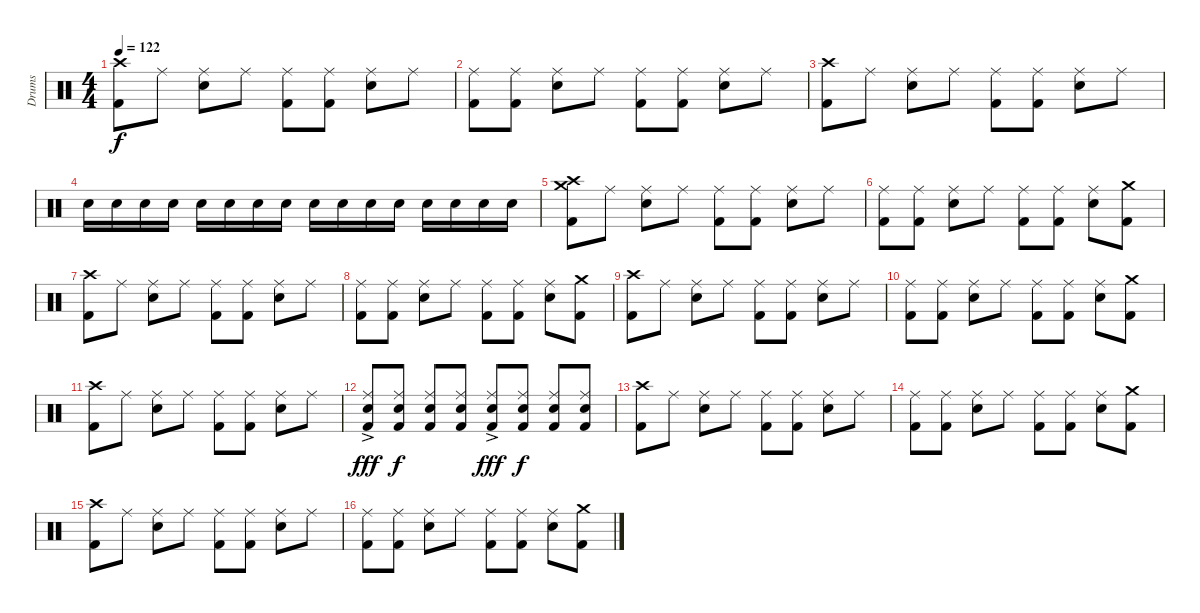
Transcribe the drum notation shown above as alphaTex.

\track ("Drums" "Drums") {instrument percussion}
\staff {score}
\articulation defaults
\ts (4 4)
\tempo 122
\clef neutral
\ks c
("Crash high (hit)" "Kick (hit) 2").8{dy f} "Ride (middle)".8 ("Ride (middle)" "Snare (hit) 2").8 "Ride (middle)".8 ("Ride (middle)" "Kick (hit) 2").8 ("Ride (middle)" "Kick (hit) 2").8 ("Ride (middle)" "Snare (hit) 2").8 "Ride (middle)".8 |
("Ride (middle)" "Kick (hit) 2").8 ("Ride (middle)" "Kick (hit) 2").8 ("Ride (middle)" "Snare (hit) 2").8 "Ride (middle)".8 ("Ride (middle)" "Kick (hit) 2").8 ("Ride (middle)" "Kick (hit) 2").8 ("Ride (middle)" "Snare (hit) 2").8 "Ride (middle)".8 |
("Crash high (hit)" "Kick (hit) 2").8 "Ride (middle)".8 ("Ride (middle)" "Snare (hit) 2").8 "Ride (middle)".8 ("Ride (middle)" "Kick (hit) 2").8 ("Ride (middle)" "Kick (hit) 2").8 ("Ride (middle)" "Snare (hit) 2").8 "Ride (middle)".8 |
"Snare (hit) 2".16 "Snare (hit) 2".16 "Snare (hit) 2".16 "Snare (hit) 2".16 "Snare (hit) 2".16 "Snare (hit) 2".16 "Snare (hit) 2".16 "Snare (hit) 2".16 "Snare (hit) 2".16 "Snare (hit) 2".16 "Snare (hit) 2".16 "Snare (hit) 2".16 "Snare (hit) 2".16 "Snare (hit) 2".16 "Snare (hit) 2".16 "Snare (hit) 2".16 |
("Crash high (hit)" "Crash medium (hit)" "Kick (hit) 2").8 "Ride (middle)".8 ("Ride (middle)" "Snare (hit) 2").8 "Ride (middle)".8 ("Ride (middle)" "Kick (hit) 2").8 ("Ride (middle)" "Kick (hit) 2").8 ("Ride (middle)" "Snare (hit) 2").8 "Ride (middle)".8 |
("Ride (middle)" "Kick (hit) 2").8 ("Ride (middle)" "Kick (hit) 2").8 ("Ride (middle)" "Snare (hit) 2").8 "Ride (middle)".8 ("Ride (middle)" "Kick (hit) 2").8 ("Ride (middle)" "Kick (hit) 2").8 ("Ride (middle)" "Snare (hit) 2").8 ("Crash medium (hit)" "Kick (hit) 2").8 |
("Crash high (hit)" "Kick (hit) 2").8 "Ride (middle)".8 ("Ride (middle)" "Snare (hit) 2").8 "Ride (middle)".8 ("Ride (middle)" "Kick (hit) 2").8 ("Ride (middle)" "Kick (hit) 2").8 ("Ride (middle)" "Snare (hit) 2").8 "Ride (middle)".8 |
("Ride (middle)" "Kick (hit) 2").8 ("Ride (middle)" "Kick (hit) 2").8 ("Ride (middle)" "Snare (hit) 2").8 "Ride (middle)".8 ("Ride (middle)" "Kick (hit) 2").8 ("Ride (middle)" "Kick (hit) 2").8 ("Ride (middle)" "Snare (hit) 2").8 ("Crash medium (hit)" "Kick (hit) 2").8 |
("Crash high (hit)" "Kick (hit) 2").8 "Ride (middle)".8 ("Ride (middle)" "Snare (hit) 2").8 "Ride (middle)".8 ("Ride (middle)" "Kick (hit) 2").8 ("Ride (middle)" "Kick (hit) 2").8 ("Ride (middle)" "Snare (hit) 2").8 "Ride (middle)".8 |
("Ride (middle)" "Kick (hit) 2").8 ("Ride (middle)" "Kick (hit) 2").8 ("Ride (middle)" "Snare (hit) 2").8 "Ride (middle)".8 ("Ride (middle)" "Kick (hit) 2").8 ("Ride (middle)" "Kick (hit) 2").8 ("Ride (middle)" "Snare (hit) 2").8 ("Crash medium (hit)" "Kick (hit) 2").8 |
("Crash high (hit)" "Kick (hit) 2").8 "Ride (middle)".8 ("Ride (middle)" "Snare (hit) 2").8 "Ride (middle)".8 ("Ride (middle)" "Kick (hit) 2").8 ("Ride (middle)" "Kick (hit) 2").8 ("Ride (middle)" "Snare (hit) 2").8 "Ride (middle)".8 |
("Ride (middle)"{ac} "Snare (hit) 2" "Kick (hit) 2").8{dy fff} ("Ride (middle)" "Snare (hit) 2" "Kick (hit) 2").8{dy f} ("Ride (middle)" "Snare (hit) 2" "Kick (hit) 2").8 ("Ride (middle)" "Snare (hit) 2" "Kick (hit) 2").8 ("Ride (middle)"{ac} "Snare (hit) 2" "Kick (hit) 2").8{dy fff} ("Ride (middle)" "Snare (hit) 2" "Kick (hit) 2").8{dy f} ("Ride (middle)" "Snare (hit) 2" "Kick (hit) 2").8 ("Ride (middle)" "Snare (hit) 2" "Kick (hit) 2").8 |
("Crash high (hit)" "Kick (hit) 2").8 "Ride (middle)".8 ("Ride (middle)" "Snare (hit) 2").8 "Ride (middle)".8 ("Ride (middle)" "Kick (hit) 2").8 ("Ride (middle)" "Kick (hit) 2").8 ("Ride (middle)" "Snare (hit) 2").8 "Ride (middle)".8 |
("Ride (middle)" "Kick (hit) 2").8 ("Ride (middle)" "Kick (hit) 2").8 ("Ride (middle)" "Snare (hit) 2").8 "Ride (middle)".8 ("Ride (middle)" "Kick (hit) 2").8 ("Ride (middle)" "Kick (hit) 2").8 ("Ride (middle)" "Snare (hit) 2").8 ("Crash medium (hit)" "Kick (hit) 2").8 |
("Crash high (hit)" "Kick (hit) 2").8 "Ride (middle)".8 ("Ride (middle)" "Snare (hit) 2").8 "Ride (middle)".8 ("Ride (middle)" "Kick (hit) 2").8 ("Ride (middle)" "Kick (hit) 2").8 ("Ride (middle)" "Snare (hit) 2").8 "Ride (middle)".8 |
("Ride (middle)" "Kick (hit) 2").8 ("Ride (middle)" "Kick (hit) 2").8 ("Ride (middle)" "Snare (hit) 2").8 "Ride (middle)".8 ("Ride (middle)" "Kick (hit) 2").8 ("Ride (middle)" "Kick (hit) 2").8 ("Ride (middle)" "Snare (hit) 2").8 ("Crash medium (hit)" "Kick (hit) 2").8
